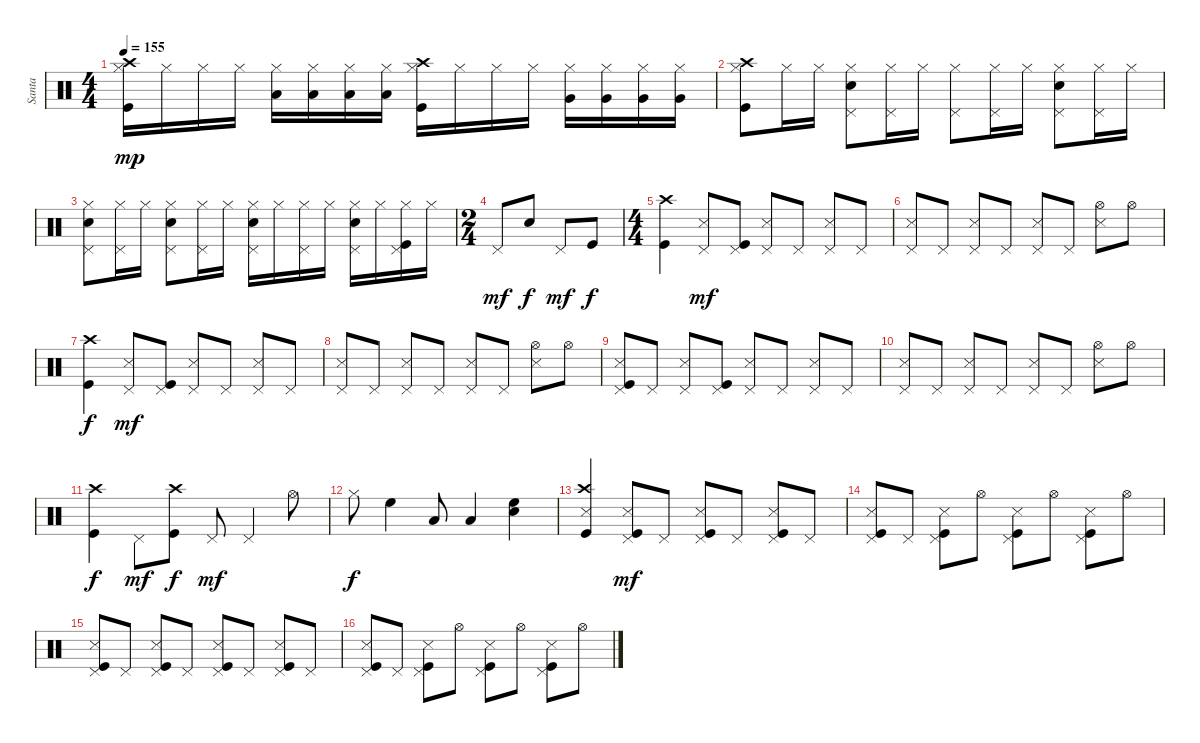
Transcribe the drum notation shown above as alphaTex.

\track ("Santa" "Santa") {instrument percussion}
\staff {score}
\articulation defaults
\ts (4 4)
\tempo 155
\clef neutral
\ks c
("Kick (hit)" "Crash high (hit)" "Hi-Hat (closed)").16{dy mp} "Hi-Hat (closed)".16 "Hi-Hat (closed)".16 "Hi-Hat (closed)".16 ("Low Tom (hit)" "Hi-Hat (closed)").16 ("Low Tom (hit)" "Hi-Hat (closed)").16 ("Low Tom (hit)" "Hi-Hat (closed)").16 ("Low Tom (hit)" "Hi-Hat (closed)").16 ("Kick (hit)" "Crash high (hit)" "Hi-Hat (closed)").16 "Hi-Hat (closed)".16 "Hi-Hat (closed)".16 "Hi-Hat (closed)".16 ("Very Low Tom (hit)" "Hi-Hat (closed)").16 ("Very Low Tom (hit)" "Hi-Hat (closed)").16 ("Very Low Tom (hit)" "Hi-Hat (closed)").16 ("Very Low Tom (hit)" "Hi-Hat (closed)").16 |
("Kick (hit)" "Crash high (hit)" "Hi-Hat (closed)").8 "Hi-Hat (closed)".16 "Hi-Hat (closed)".16 ("Pedal Hi-Hat (hit)" "Snare (hit) 2" "Hi-Hat (closed)").8 ("Pedal Hi-Hat (hit)" "Hi-Hat (closed)").16 "Hi-Hat (closed)".16 ("Pedal Hi-Hat (hit)" "Hi-Hat (closed)").8 ("Pedal Hi-Hat (hit)" "Hi-Hat (closed)").16 "Hi-Hat (closed)".16 ("Pedal Hi-Hat (hit)" "Snare (hit) 2" "Hi-Hat (closed)").8 ("Pedal Hi-Hat (hit)" "Hi-Hat (closed)").16 "Hi-Hat (closed)".16 |
("Snare (hit) 2" "Pedal Hi-Hat (hit)" "Hi-Hat (closed)").8 ("Pedal Hi-Hat (hit)" "Hi-Hat (closed)").16 "Hi-Hat (closed)".16 ("Snare (hit) 2" "Pedal Hi-Hat (hit)" "Hi-Hat (closed)").8 ("Pedal Hi-Hat (hit)" "Hi-Hat (closed)").16 "Hi-Hat (closed)".16 ("Snare (hit) 2" "Pedal Hi-Hat (hit)" "Hi-Hat (closed)").16 "Hi-Hat (closed)".16 ("Pedal Hi-Hat (hit)" "Hi-Hat (closed)").16 "Hi-Hat (closed)".16 ("Snare (hit) 2" "Pedal Hi-Hat (hit)" "Hi-Hat (closed)").16 "Hi-Hat (closed)".16 ("Pedal Hi-Hat (hit)" "Kick (hit)" "Hi-Hat (closed)").16 "Hi-Hat (closed)".16 |
\ts (2 4)
"Pedal Hi-Hat (hit)".8{dy mf} "Snare (hit) 2".8{dy f} "Pedal Hi-Hat (hit)".8{dy mf} "Kick (hit)".8{dy f} |
\ts (4 4)
("Kick (hit)" "Crash high (hit)").4 ("Pedal Hi-Hat (hit)" "Snare (side stick) 3").8{dy mf} ("Kick (hit)" "Pedal Hi-Hat (hit)").8 ("Pedal Hi-Hat (hit)" "Snare (side stick) 3").8 "Pedal Hi-Hat (hit)".8 ("Pedal Hi-Hat (hit)" "Snare (side stick) 3").8 "Pedal Hi-Hat (hit)".8 |
("Pedal Hi-Hat (hit)" "Snare (side stick) 3").8 "Pedal Hi-Hat (hit)".8 ("Pedal Hi-Hat (hit)" "Snare (side stick) 3").8 "Pedal Hi-Hat (hit)".8 ("Pedal Hi-Hat (hit)" "Snare (side stick) 3").8 "Pedal Hi-Hat (hit)".8 ("Hi-Hat (open)" "Snare (side stick) 3").8 "Hi-Hat (open)".8 |
("Kick (hit)" "Crash high (hit)").4{dy f} ("Pedal Hi-Hat (hit)" "Snare (side stick) 3").8{dy mf} ("Kick (hit)" "Pedal Hi-Hat (hit)").8 ("Pedal Hi-Hat (hit)" "Snare (side stick) 3").8 "Pedal Hi-Hat (hit)".8 ("Pedal Hi-Hat (hit)" "Snare (side stick) 3").8 "Pedal Hi-Hat (hit)".8 |
("Pedal Hi-Hat (hit)" "Snare (side stick) 3").8 "Pedal Hi-Hat (hit)".8 ("Pedal Hi-Hat (hit)" "Snare (side stick) 3").8 "Pedal Hi-Hat (hit)".8 ("Pedal Hi-Hat (hit)" "Snare (side stick) 3").8 "Pedal Hi-Hat (hit)".8 ("Hi-Hat (open)" "Snare (side stick) 3").8 "Hi-Hat (open)".8 |
("Pedal Hi-Hat (hit)" "Kick (hit)" "Snare (side stick) 3").8 "Pedal Hi-Hat (hit)".8 ("Pedal Hi-Hat (hit)" "Snare (side stick) 3").8 ("Pedal Hi-Hat (hit)" "Kick (hit)").8 ("Pedal Hi-Hat (hit)" "Snare (side stick) 3").8 "Pedal Hi-Hat (hit)".8 ("Pedal Hi-Hat (hit)" "Snare (side stick) 3").8 "Pedal Hi-Hat (hit)".8 |
("Pedal Hi-Hat (hit)" "Snare (side stick) 3").8 "Pedal Hi-Hat (hit)".8 ("Pedal Hi-Hat (hit)" "Snare (side stick) 3").8 "Pedal Hi-Hat (hit)".8 ("Pedal Hi-Hat (hit)" "Snare (side stick) 3").8 "Pedal Hi-Hat (hit)".8 ("Hi-Hat (open)" "Snare (side stick) 3").8 "Hi-Hat (open)".8 |
("Kick (hit)" "Crash high (hit)").4{dy f} "Pedal Hi-Hat (hit)".8{dy mf} ("Kick (hit)" "Crash high (hit)").8{dy f} "Pedal Hi-Hat (hit)".8{dy mf} "Pedal Hi-Hat (hit)".4 "Hi-Hat (open)".8 |
"Hi-Hat (closed)".8{dy f} "High Floor Tom (hit)".4 "Low Tom (hit)".8 "Low Floor Tom (hit)".4 ("Snare (hit) 2" "High Floor Tom (hit)").4 |
("Kick (hit)" "Crash high (hit)" "Snare (side stick) 3").4 ("Kick (hit)" "Pedal Hi-Hat (hit)" "Snare (side stick) 3").8{dy mf} "Pedal Hi-Hat (hit)".8 ("Kick (hit)" "Pedal Hi-Hat (hit)" "Snare (side stick) 3").8 "Pedal Hi-Hat (hit)".8 ("Kick (hit)" "Pedal Hi-Hat (hit)" "Snare (side stick) 3").8 "Pedal Hi-Hat (hit)".8 |
("Kick (hit)" "Pedal Hi-Hat (hit)" "Snare (side stick) 3").8 "Pedal Hi-Hat (hit)".8 ("Kick (hit)" "Pedal Hi-Hat (hit)" "Snare (side stick) 3").8 "Hi-Hat (open)".8 ("Kick (hit)" "Pedal Hi-Hat (hit)" "Snare (side stick) 3").8 "Hi-Hat (open)".8 ("Kick (hit)" "Pedal Hi-Hat (hit)" "Snare (side stick) 3").8 "Hi-Hat (open)".8 |
("Kick (hit)" "Snare (side stick) 3" "Pedal Hi-Hat (hit)").8 "Pedal Hi-Hat (hit)".8 ("Kick (hit)" "Snare (side stick) 3" "Pedal Hi-Hat (hit)").8 "Pedal Hi-Hat (hit)".8 ("Kick (hit)" "Snare (side stick) 3" "Pedal Hi-Hat (hit)").8 "Pedal Hi-Hat (hit)".8 ("Kick (hit)" "Snare (side stick) 3" "Pedal Hi-Hat (hit)").8 "Pedal Hi-Hat (hit)".8 |
("Kick (hit)" "Snare (side stick) 3" "Pedal Hi-Hat (hit)").8 "Pedal Hi-Hat (hit)".8 ("Kick (hit)" "Snare (side stick) 3" "Pedal Hi-Hat (hit)").8 "Hi-Hat (open)".8 ("Kick (hit)" "Snare (side stick) 3" "Pedal Hi-Hat (hit)").8 "Hi-Hat (open)".8 ("Kick (hit)" "Snare (side stick) 3" "Pedal Hi-Hat (hit)").8 "Hi-Hat (open)".8
